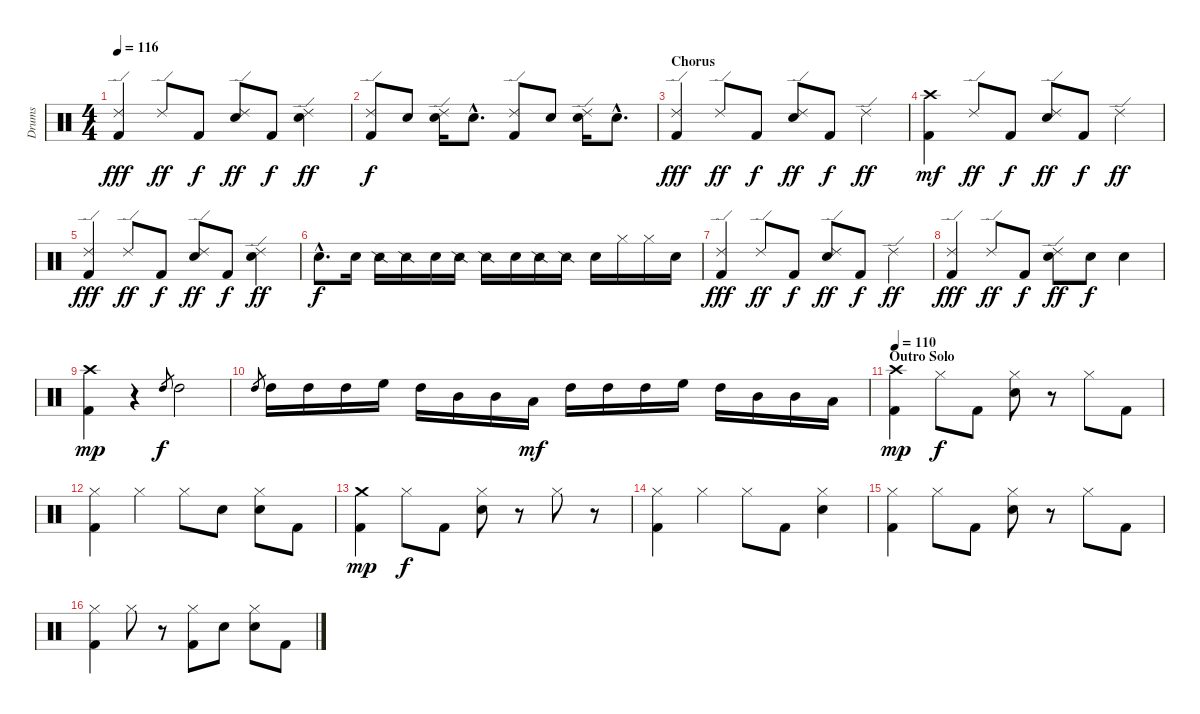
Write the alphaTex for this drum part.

\track ("Drums" "Drums") {instrument percussion}
\staff {score}
\articulation defaults
\ts (4 4)
\tempo 116
\clef neutral
\ks c
("Ride (edge) 2" "Kick (hit) 2").4{dy fff} "Ride (edge) 2".8{dy ff} "Kick (hit) 2".8{dy f} ("Ride (edge) 2" "Snare (hit) 2").8{dy ff} "Kick (hit) 2".8{dy f} ("Ride (edge) 2" "Snare (hit) 2").4{dy ff} |
("Ride (edge) 2" "Kick (hit) 2").8{dy f} "Snare (hit) 2".8 ("Ride (edge) 2" "Snare (hit) 2").16 "Snare (hit) 2"{hac}.8{d} ("Ride (edge) 2" "Kick (hit) 2").8 "Snare (hit) 2".8 ("Ride (edge) 2" "Snare (hit) 2").16 "Snare (hit) 2"{hac}.8{d} |
\section ("" "Chorus")
("Ride (edge) 2" "Kick (hit) 2").4{dy fff} "Ride (edge) 2".8{dy ff} "Kick (hit) 2".8{dy f} ("Ride (edge) 2" "Snare (hit) 2").8{dy ff} "Kick (hit) 2".8{dy f} "Ride (edge) 2".4{dy ff} |
("Crash high (hit)" "Kick (hit) 2").4{dy mf} "Ride (edge) 2".8{dy ff} "Kick (hit) 2".8{dy f} ("Ride (edge) 2" "Snare (hit) 2").8{dy ff} "Kick (hit) 2".8{dy f} "Ride (edge) 2".4{dy ff} |
("Ride (edge) 2" "Kick (hit) 2").4{dy fff} "Ride (edge) 2".8{dy ff} "Kick (hit) 2".8{dy f} ("Ride (edge) 2" "Snare (hit) 2").8{dy ff} "Kick (hit) 2".8{dy f} ("Ride (edge) 2" "Snare (hit) 2").4{dy ff} |
"Snare (hit) 2"{hac}.8{d dy f} "Snare (hit) 2".16 "Snare (side stick) 2".16 "Snare (side stick) 2".16 "Snare (hit) 2".16 "Snare (side stick) 2".16 "Snare (side stick) 2".16 "Snare (hit) 2".16 "Snare (side stick) 2".16 "Snare (side stick) 2".16 "Snare (hit) 2".16 "Hi-Hat (closed)".16 "Hi-Hat (closed)".16 "Snare (hit) 2".16 |
("Ride (edge) 2" "Kick (hit) 2").4{dy fff} "Ride (edge) 2".8{dy ff} "Kick (hit) 2".8{dy f} ("Ride (edge) 2" "Snare (hit) 2").8{dy ff} "Kick (hit) 2".8{dy f} "Ride (edge) 2".4{dy ff} |
("Ride (edge) 2" "Kick (hit) 2").4{dy fff} "Ride (edge) 2".8{dy ff} "Kick (hit) 2".8{dy f} ("Ride (edge) 2" "Snare (hit) 2").8{dy ff} "Snare (hit) 2".8{dy f} "Snare (hit) 2".4 |
("Crash high (hit)" "Kick (hit) 2").4{dy mp} r.4 "High Tom (hit)".8{gr dy f} "High Tom (hit)".2 |
"High Tom (hit)".8{gr} "High Tom (hit)".16 "High Tom (hit)".16 "High Tom (hit)".16 "High Floor Tom (hit)".16 "High Tom (hit)".16 "Mid Tom (hit)".16 "Mid Tom (hit)".16 "Low Tom (hit)".16{dy mf} "High Tom (hit)".16 "High Tom (hit)".16 "High Tom (hit)".16 "High Floor Tom (hit)".16 "High Tom (hit)".16 "Mid Tom (hit)".16 "Mid Tom (hit)".16 "Low Tom (hit)".16 |
\section ("" "Outro Solo")
\tempo 110
("Crash high (hit)" "Kick (hit) 2").4{dy mp} "Hi-Hat (closed)".8{dy f} "Kick (hit) 2".8 ("Hi-Hat (closed)" "Snare (hit) 2").8 r.8 "Hi-Hat (closed)".8 "Kick (hit) 2".8 |
("Hi-Hat (closed)" "Kick (hit) 2").4 "Hi-Hat (closed)".4 "Hi-Hat (closed)".8 "Snare (hit) 2".8 ("Hi-Hat (closed)" "Snare (hit) 2").8 "Kick (hit) 2".8 |
("Crash medium (hit)" "Kick (hit) 2").4{dy mp} "Hi-Hat (closed)".8{dy f} "Kick (hit) 2".8 ("Hi-Hat (closed)" "Snare (hit) 2").8 r.8 "Hi-Hat (closed)".8 r.8 |
("Hi-Hat (closed)" "Kick (hit) 2").4 "Hi-Hat (closed)".4 "Hi-Hat (closed)".8 "Kick (hit) 2".8 ("Hi-Hat (closed)" "Snare (hit) 2").4 |
("Hi-Hat (closed)" "Kick (hit) 2").4 "Hi-Hat (closed)".8 "Kick (hit) 2".8 ("Hi-Hat (closed)" "Snare (hit) 2").8 r.8 "Hi-Hat (closed)".8 "Kick (hit) 2".8 |
("Hi-Hat (closed)" "Kick (hit) 2").4 "Hi-Hat (closed)".8 r.8 ("Hi-Hat (closed)" "Kick (hit) 2").8 "Snare (hit) 2".8 ("Hi-Hat (closed)" "Snare (hit) 2").8 "Kick (hit) 2".8
